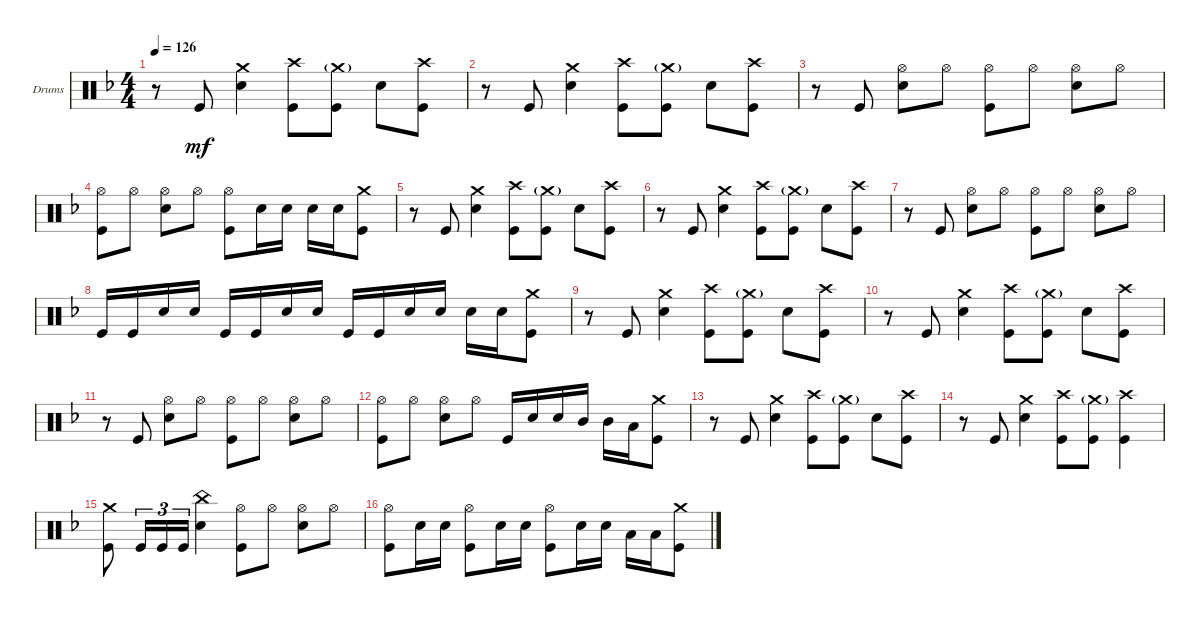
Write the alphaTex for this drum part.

\defaultSystemsLayout 4
\bracketExtendMode groupsimilarinstruments
\firstSystemTrackNameOrientation horizontal
\otherSystemsTrackNameOrientation horizontal
\track ("Drumkit" "Drums") {instrument percussion}
\staff {score}
\articulation defaults
\ts (4 4)
\tempo 126
\clef neutral
\ks f
r.8{dy mf} "Kick (hit)".8 ("Snare (hit) 2" "Crash medium (hit)").4 ("Crash high (hit)" "Kick (hit)").8 ("Kick (hit)" "Crash medium (hit)"{g}).8 "Snare (hit) 2".8 ("Crash high (hit)" "Kick (hit)").8 |
r.8 "Kick (hit)".8 ("Crash medium (hit)" "Snare (hit) 2").4 ("Crash high (hit)" "Kick (hit)").8 ("Kick (hit)" "Crash medium (hit)"{g}).8 "Snare (hit) 2".8 ("Crash high (hit)" "Kick (hit)").8 |
r.8 "Kick (hit)".8 ("Snare (hit) 2" "Hi-Hat (open)").8 "Hi-Hat (open)".8 ("Hi-Hat (open)" "Kick (hit)").8 "Hi-Hat (open)".8 ("Snare (hit) 2" "Hi-Hat (open)").8 "Hi-Hat (open)".8 |
("Hi-Hat (open)" "Kick (hit)").8 "Hi-Hat (open)".8 ("Snare (hit) 2" "Hi-Hat (open)").8 "Hi-Hat (open)".8 ("Kick (hit)" "Hi-Hat (open)").8 "Snare (hit) 2".16 "Snare (hit) 2".16 "Snare (hit) 2".16 "Snare (hit) 2".16 ("Kick (hit)" "Crash medium (hit)").8 |
r.8 "Kick (hit)".8 ("Snare (hit) 2" "Crash medium (hit)").4 ("Crash high (hit)" "Kick (hit)").8 ("Kick (hit)" "Crash medium (hit)"{g}).8 "Snare (hit) 2".8 ("Crash high (hit)" "Kick (hit)").8 |
r.8 "Kick (hit)".8 ("Crash medium (hit)" "Snare (hit) 2").4 ("Crash high (hit)" "Kick (hit)").8 ("Kick (hit)" "Crash medium (hit)"{g}).8 "Snare (hit) 2".8 ("Crash high (hit)" "Kick (hit)").8 |
r.8 "Kick (hit)".8 ("Snare (hit) 2" "Hi-Hat (open)").8 "Hi-Hat (open)".8 ("Hi-Hat (open)" "Kick (hit)").8 "Hi-Hat (open)".8 ("Snare (hit) 2" "Hi-Hat (open)").8 "Hi-Hat (open)".8 |
"Kick (hit)".16 "Kick (hit)".16 "Snare (hit) 2".16 "Snare (hit) 2".16 "Kick (hit)".16 "Kick (hit)".16 "Snare (hit) 2".16 "Snare (hit) 2".16 "Kick (hit)".16 "Kick (hit)".16 "Snare (hit) 2".16 "Snare (hit) 2".16 "Snare (hit) 2".16 "Snare (hit) 2".16 ("Kick (hit)" "Crash medium (hit)").8 |
r.8 "Kick (hit)".8 ("Snare (hit) 2" "Crash medium (hit)").4 ("Crash high (hit)" "Kick (hit)").8 ("Kick (hit)" "Crash medium (hit)"{g}).8 "Snare (hit) 2".8 ("Crash high (hit)" "Kick (hit)").8 |
r.8 "Kick (hit)".8 ("Crash medium (hit)" "Snare (hit) 2").4 ("Crash high (hit)" "Kick (hit)").8 ("Kick (hit)" "Crash medium (hit)"{g}).8 "Snare (hit) 2".8 ("Crash high (hit)" "Kick (hit)").8 |
r.8 "Kick (hit)".8 ("Snare (hit) 2" "Hi-Hat (open)").8 "Hi-Hat (open)".8 ("Hi-Hat (open)" "Kick (hit)").8 "Hi-Hat (open)".8 ("Snare (hit) 2" "Hi-Hat (open)").8 "Hi-Hat (open)".8 |
("Hi-Hat (open)" "Kick (hit)").8 "Hi-Hat (open)".8 ("Snare (hit) 2" "Hi-Hat (open)").8 "Hi-Hat (open)".8 "Kick (hit)".16 "Snare (hit) 2".16 "Snare (hit) 2".16 "Mid Tom (hit)".16 "Mid Tom (hit)".16 "Low Tom (hit)".16 ("Kick (hit)" "Crash medium (hit)").8 |
r.8 "Kick (hit)".8 ("Snare (hit) 2" "Crash medium (hit)").4 ("Crash high (hit)" "Kick (hit)").8 ("Kick (hit)" "Crash medium (hit)"{g}).8 "Snare (hit) 2".8 ("Crash high (hit)" "Kick (hit)").8 |
r.8 "Kick (hit)".8 ("Crash medium (hit)" "Snare (hit) 2").4 ("Crash high (hit)" "Kick (hit)").8 ("Kick (hit)" "Crash medium (hit)"{g}).8 ("Crash high (hit)" "Kick (hit)").4 |
("Kick (hit)" "Crash medium (hit)").8 "Kick (hit)".16{tu (3 2)} "Kick (hit)".16{tu (3 2)} "Kick (hit)".16{tu (3 2)} ("Snare (hit) 2" "China (hit)").4 ("Hi-Hat (open)" "Kick (hit)").8 "Hi-Hat (open)".8 ("Snare (hit) 2" "Hi-Hat (open)").8 "Hi-Hat (open)".8 |
("Hi-Hat (open)" "Kick (hit)").8 "Snare (hit) 2".16 "Snare (hit) 2".16 ("Hi-Hat (open)" "Kick (hit)").8 "Snare (hit) 2".16 "Snare (hit) 2".16 ("Hi-Hat (open)" "Kick (hit)").8 "Snare (hit) 2".16 "Snare (hit) 2".16 "Low Tom (hit)".16 "Low Tom (hit)".16 ("Kick (hit)" "Crash medium (hit)").8
